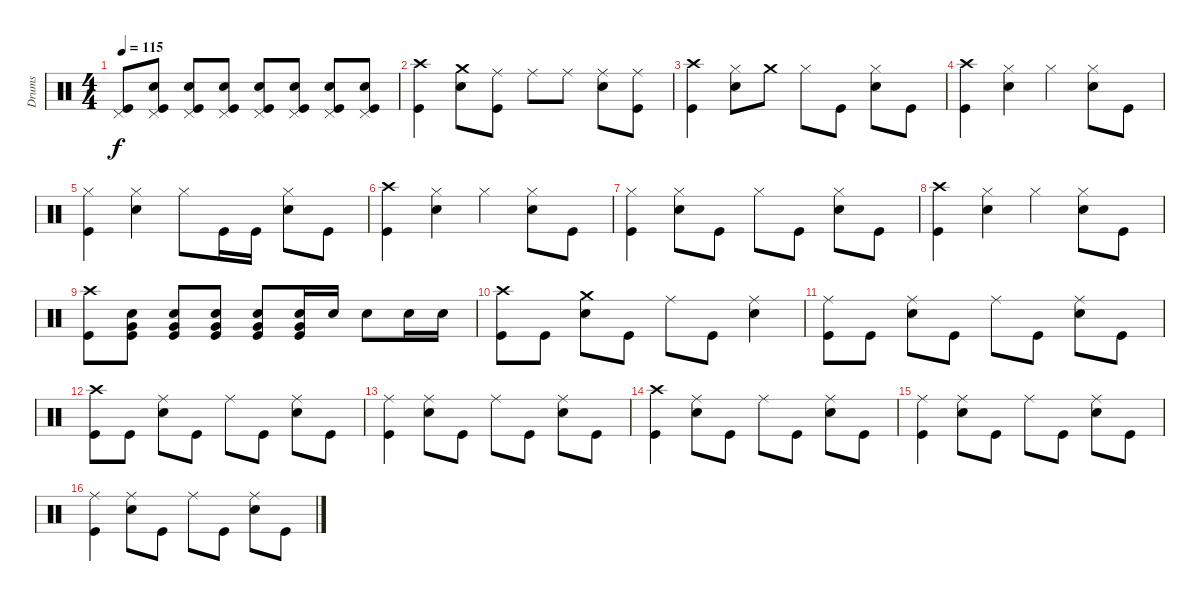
\track ("Drums" "Drums") {instrument percussion}
\staff {score}
\articulation defaults
\ts (4 4)
\tempo 115
\clef neutral
\ks c
("Kick (hit)" "Pedal Hi-Hat (hit)").8{dy f} ("Kick (hit)" "Snare (hit) 2" "Pedal Hi-Hat (hit)").8 ("Kick (hit)" "Snare (hit) 2" "Pedal Hi-Hat (hit)").8 ("Kick (hit)" "Snare (hit) 2" "Pedal Hi-Hat (hit)").8 ("Kick (hit)" "Snare (hit) 2" "Pedal Hi-Hat (hit)").8 ("Kick (hit)" "Snare (hit) 2" "Pedal Hi-Hat (hit)").8 ("Kick (hit)" "Snare (hit) 2" "Pedal Hi-Hat (hit)").8 ("Kick (hit)" "Snare (hit) 2" "Pedal Hi-Hat (hit)").8 |
("Crash high (hit)" "Kick (hit)").4 ("Crash medium (hit)" "Snare (hit) 2").8 ("Ride (middle)" "Kick (hit)").8 "Ride (middle)".8 "Ride (middle)".8 ("Ride (middle)" "Snare (hit) 2").8 ("Ride (middle)" "Kick (hit)").8 |
("Crash high (hit)" "Kick (hit)").4 ("Hi-Hat (closed)" "Snare (hit) 2").8 "Crash medium (hit)".8 "Hi-Hat (closed)".8 "Kick (hit)".8 ("Hi-Hat (closed)" "Snare (hit) 2").8 "Kick (hit)".8 |
("Crash high (hit)" "Kick (hit)").4 ("Hi-Hat (closed)" "Snare (hit) 2").4 "Hi-Hat (closed)".4 ("Hi-Hat (closed)" "Snare (hit) 2").8 "Kick (hit)".8 |
("Hi-Hat (closed)" "Kick (hit)").4 ("Hi-Hat (closed)" "Snare (hit) 2").4 "Hi-Hat (closed)".8 "Kick (hit)".16 "Kick (hit)".16 ("Hi-Hat (closed)" "Snare (hit) 2").8 "Kick (hit)".8 |
("Crash high (hit)" "Kick (hit)").4 ("Hi-Hat (closed)" "Snare (hit) 2").4 "Hi-Hat (closed)".4 ("Hi-Hat (closed)" "Snare (hit) 2").8 "Kick (hit)".8 |
("Hi-Hat (closed)" "Kick (hit)").4 ("Hi-Hat (closed)" "Snare (hit) 2").8 "Kick (hit)".8 "Hi-Hat (closed)".8 "Kick (hit)".8 ("Hi-Hat (closed)" "Snare (hit) 2").8 "Kick (hit)".8 |
("Crash high (hit)" "Kick (hit)").4 ("Hi-Hat (closed)" "Snare (hit) 2").4 "Hi-Hat (closed)".4 ("Hi-Hat (closed)" "Snare (hit) 2").8 "Kick (hit)".8 |
("Crash high (hit)" "Kick (hit)").8 ("Snare (hit) 2" "Kick (hit)" "Very Low Tom (hit)").8 ("Snare (hit) 2" "Kick (hit)" "Very Low Tom (hit)").8 ("Snare (hit) 2" "Kick (hit)" "Very Low Tom (hit)").8 ("Snare (hit) 2" "Kick (hit)" "Very Low Tom (hit)").8 ("Snare (hit) 2" "Kick (hit)" "Very Low Tom (hit)").16 "Snare (hit) 2".16 "Snare (hit) 2".8 "Snare (hit) 2".16 "Snare (hit) 2".16 |
("Crash high (hit)" "Kick (hit)").8 "Kick (hit)".8 ("Crash medium (hit)" "Snare (hit) 2").8 "Kick (hit)".8 "Ride (middle)".8 "Kick (hit)".8 ("Ride (middle)" "Snare (hit) 2").4 |
("Ride (middle)" "Kick (hit)").8 "Kick (hit)".8 ("Ride (middle)" "Snare (hit) 2").8 "Kick (hit)".8 "Ride (middle)".8 "Kick (hit)".8 ("Ride (middle)" "Snare (hit) 2").8 "Kick (hit)".8 |
("Crash high (hit)" "Kick (hit)").8 "Kick (hit)".8 ("Ride (middle)" "Snare (hit) 2").8 "Kick (hit)".8 "Ride (middle)".8 "Kick (hit)".8 ("Ride (middle)" "Snare (hit) 2").8 "Kick (hit)".8 |
("Ride (middle)" "Kick (hit)").4 ("Ride (middle)" "Snare (hit) 2").8 "Kick (hit)".8 "Ride (middle)".8 "Kick (hit)".8 ("Ride (middle)" "Snare (hit) 2").8 "Kick (hit)".8 |
("Crash high (hit)" "Kick (hit)").4 ("Ride (middle)" "Snare (hit) 2").8 "Kick (hit)".8 "Ride (middle)".8 "Kick (hit)".8 ("Ride (middle)" "Snare (hit) 2").8 "Kick (hit)".8 |
("Ride (middle)" "Kick (hit)").4 ("Ride (middle)" "Snare (hit) 2").8 "Kick (hit)".8 "Ride (middle)".8 "Kick (hit)".8 ("Ride (middle)" "Snare (hit) 2").8 "Kick (hit)".8 |
("Ride (middle)" "Kick (hit)").4 ("Ride (middle)" "Snare (hit) 2").8 "Kick (hit)".8 "Ride (middle)".8 "Kick (hit)".8 ("Ride (middle)" "Snare (hit) 2").8 "Kick (hit)".8
